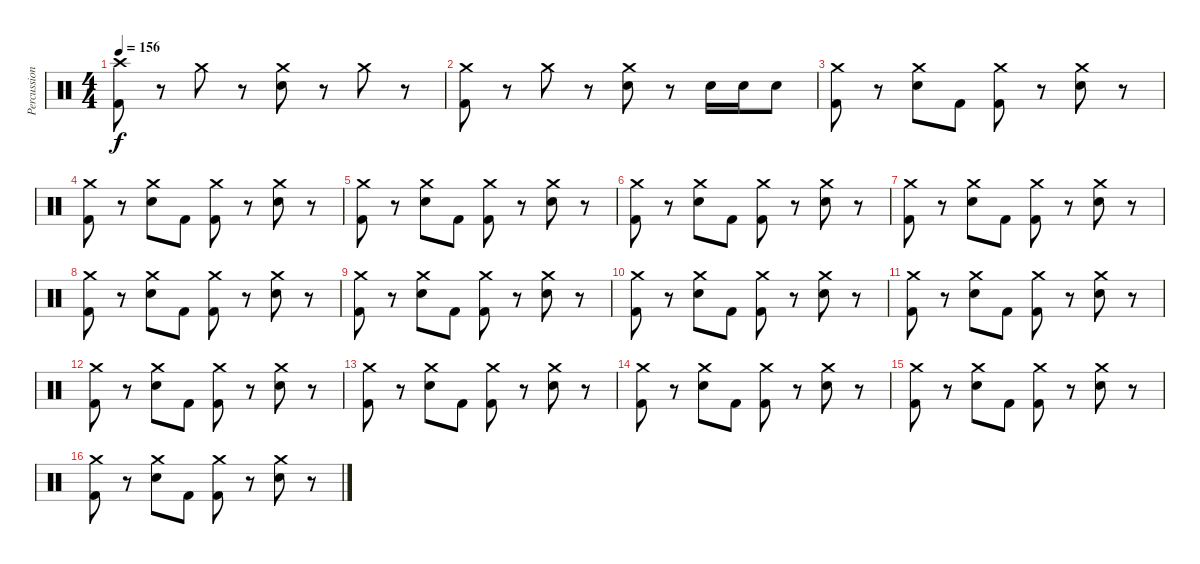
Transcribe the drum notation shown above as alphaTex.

\track ("Percussions" "Percussion") {instrument percussion}
\staff {score}
\articulation defaults
\ts (4 4)
\tempo 156
\clef neutral
\ks c
("Crash high (hit)" "Kick (hit) 2").8{dy f} r.8 "Crash medium (hit)".8 r.8 ("Crash medium (hit)" "Electric Snare (hit)").8 r.8 "Crash medium (hit)".8 r.8 |
("Crash medium (hit)" "Kick (hit) 2").8 r.8 "Crash medium (hit)".8 r.8 ("Crash medium (hit)" "Electric Snare (hit)").8 r.8 "Electric Snare (hit)".16 "Electric Snare (hit)".16 "Electric Snare (hit)".8 |
("Crash medium (hit)" "Kick (hit) 2").8 r.8 ("Crash medium (hit)" "Electric Snare (hit)").8 "Kick (hit) 2".8 ("Crash medium (hit)" "Kick (hit) 2").8 r.8 ("Crash medium (hit)" "Electric Snare (hit)").8 r.8 |
("Crash medium (hit)" "Kick (hit) 2").8 r.8 ("Crash medium (hit)" "Electric Snare (hit)").8 "Kick (hit) 2".8 ("Crash medium (hit)" "Kick (hit) 2").8 r.8 ("Crash medium (hit)" "Electric Snare (hit)").8 r.8 |
("Crash medium (hit)" "Kick (hit) 2").8 r.8 ("Crash medium (hit)" "Electric Snare (hit)").8 "Kick (hit) 2".8 ("Crash medium (hit)" "Kick (hit) 2").8 r.8 ("Crash medium (hit)" "Electric Snare (hit)").8 r.8 |
("Crash medium (hit)" "Kick (hit) 2").8 r.8 ("Crash medium (hit)" "Electric Snare (hit)").8 "Kick (hit) 2".8 ("Crash medium (hit)" "Kick (hit) 2").8 r.8 ("Crash medium (hit)" "Electric Snare (hit)").8 r.8 |
("Crash medium (hit)" "Kick (hit) 2").8 r.8 ("Crash medium (hit)" "Electric Snare (hit)").8 "Kick (hit) 2".8 ("Crash medium (hit)" "Kick (hit) 2").8 r.8 ("Crash medium (hit)" "Electric Snare (hit)").8 r.8 |
("Crash medium (hit)" "Kick (hit) 2").8 r.8 ("Crash medium (hit)" "Electric Snare (hit)").8 "Kick (hit) 2".8 ("Crash medium (hit)" "Kick (hit) 2").8 r.8 ("Crash medium (hit)" "Electric Snare (hit)").8 r.8 |
("Crash medium (hit)" "Kick (hit) 2").8 r.8 ("Crash medium (hit)" "Electric Snare (hit)").8 "Kick (hit) 2".8 ("Crash medium (hit)" "Kick (hit) 2").8 r.8 ("Crash medium (hit)" "Electric Snare (hit)").8 r.8 |
("Crash medium (hit)" "Kick (hit) 2").8 r.8 ("Crash medium (hit)" "Electric Snare (hit)").8 "Kick (hit) 2".8 ("Crash medium (hit)" "Kick (hit) 2").8 r.8 ("Crash medium (hit)" "Electric Snare (hit)").8 r.8 |
("Crash medium (hit)" "Kick (hit) 2").8 r.8 ("Crash medium (hit)" "Electric Snare (hit)").8 "Kick (hit) 2".8 ("Crash medium (hit)" "Kick (hit) 2").8 r.8 ("Crash medium (hit)" "Electric Snare (hit)").8 r.8 |
("Crash medium (hit)" "Kick (hit) 2").8 r.8 ("Crash medium (hit)" "Electric Snare (hit)").8 "Kick (hit) 2".8 ("Crash medium (hit)" "Kick (hit) 2").8 r.8 ("Crash medium (hit)" "Electric Snare (hit)").8 r.8 |
("Crash medium (hit)" "Kick (hit) 2").8 r.8 ("Crash medium (hit)" "Electric Snare (hit)").8 "Kick (hit) 2".8 ("Crash medium (hit)" "Kick (hit) 2").8 r.8 ("Crash medium (hit)" "Electric Snare (hit)").8 r.8 |
("Crash medium (hit)" "Kick (hit) 2").8 r.8 ("Crash medium (hit)" "Electric Snare (hit)").8 "Kick (hit) 2".8 ("Crash medium (hit)" "Kick (hit) 2").8 r.8 ("Crash medium (hit)" "Electric Snare (hit)").8 r.8 |
("Crash medium (hit)" "Kick (hit) 2").8 r.8 ("Crash medium (hit)" "Electric Snare (hit)").8 "Kick (hit) 2".8 ("Crash medium (hit)" "Kick (hit) 2").8 r.8 ("Crash medium (hit)" "Electric Snare (hit)").8 r.8 |
("Crash medium (hit)" "Kick (hit) 2").8 r.8 ("Crash medium (hit)" "Electric Snare (hit)").8 "Kick (hit) 2".8 ("Crash medium (hit)" "Kick (hit) 2").8 r.8 ("Crash medium (hit)" "Electric Snare (hit)").8 r.8
